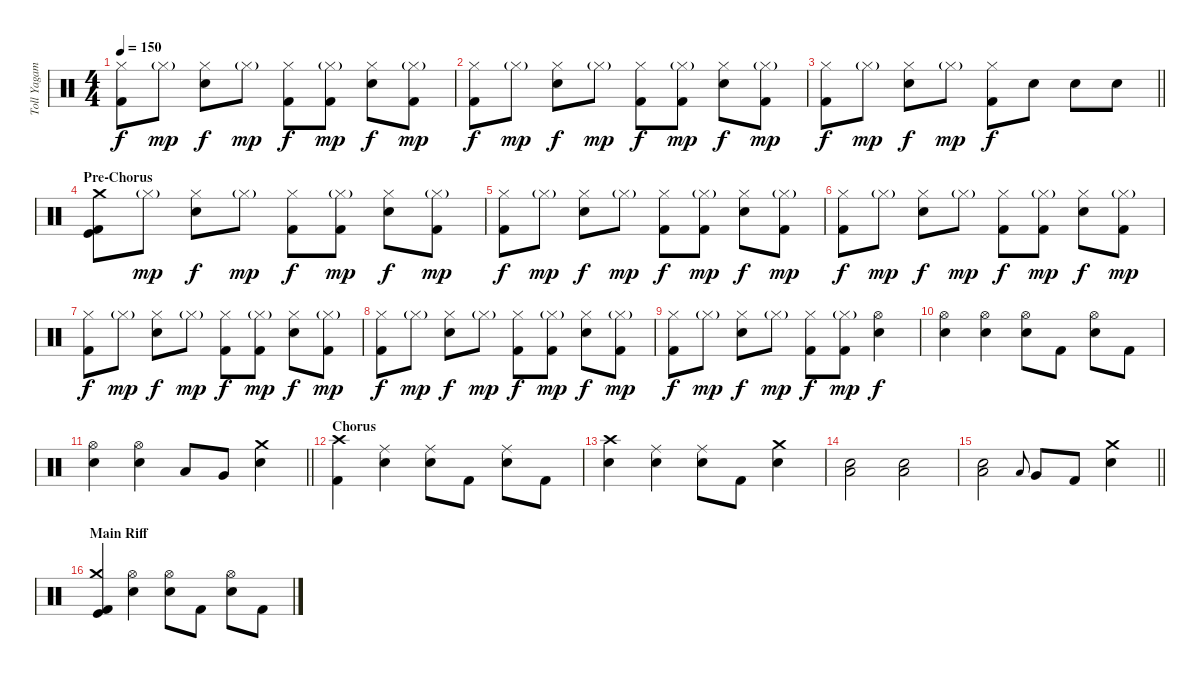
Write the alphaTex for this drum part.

\track ("Toll Yagami" "Toll Yagam") {instrument percussion}
\staff {score}
\articulation defaults
\ts (4 4)
\tempo 150
\clef neutral
\ks c
("Hi-Hat (closed)" "Kick (hit) 2").8{dy f} "Hi-Hat (closed)"{g}.8{dy mp} ("Hi-Hat (closed)" "Electric Snare (hit)").8{dy f} "Hi-Hat (closed)"{g}.8{dy mp} ("Hi-Hat (closed)" "Kick (hit) 2").8{dy f} ("Hi-Hat (closed)"{g} "Kick (hit) 2").8{dy mp} ("Hi-Hat (closed)" "Electric Snare (hit)").8{dy f} ("Hi-Hat (closed)"{g} "Kick (hit) 2").8{dy mp} |
("Hi-Hat (closed)" "Kick (hit) 2").8{dy f} "Hi-Hat (closed)"{g}.8{dy mp} ("Hi-Hat (closed)" "Electric Snare (hit)").8{dy f} "Hi-Hat (closed)"{g}.8{dy mp} ("Hi-Hat (closed)" "Kick (hit) 2").8{dy f} ("Hi-Hat (closed)"{g} "Kick (hit) 2").8{dy mp} ("Hi-Hat (closed)" "Electric Snare (hit)").8{dy f} ("Hi-Hat (closed)"{g} "Kick (hit) 2").8{dy mp} |
\barLineRight lightlight
("Hi-Hat (closed)" "Kick (hit) 2").8{dy f} "Hi-Hat (closed)"{g}.8{dy mp} ("Hi-Hat (closed)" "Electric Snare (hit)").8{dy f} "Hi-Hat (closed)"{g}.8{dy mp} ("Hi-Hat (closed)" "Kick (hit) 2").8{dy f} "Electric Snare (hit)".8 "Electric Snare (hit)".8 "Electric Snare (hit)".8 |
\section ("" "Pre-Chorus")
("Crash medium (hit)" "Kick (hit) 2" "Kick (hit)").8 "Hi-Hat (closed)"{g}.8{dy mp} ("Hi-Hat (closed)" "Electric Snare (hit)").8{dy f} "Hi-Hat (closed)"{g}.8{dy mp} ("Hi-Hat (closed)" "Kick (hit) 2").8{dy f} ("Hi-Hat (closed)"{g} "Kick (hit) 2").8{dy mp} ("Hi-Hat (closed)" "Electric Snare (hit)").8{dy f} ("Hi-Hat (closed)"{g} "Kick (hit) 2").8{dy mp} |
("Hi-Hat (closed)" "Kick (hit) 2").8{dy f} "Hi-Hat (closed)"{g}.8{dy mp} ("Hi-Hat (closed)" "Electric Snare (hit)").8{dy f} "Hi-Hat (closed)"{g}.8{dy mp} ("Hi-Hat (closed)" "Kick (hit) 2").8{dy f} ("Hi-Hat (closed)"{g} "Kick (hit) 2").8{dy mp} ("Hi-Hat (closed)" "Electric Snare (hit)").8{dy f} ("Hi-Hat (closed)"{g} "Kick (hit) 2").8{dy mp} |
("Hi-Hat (closed)" "Kick (hit) 2").8{dy f} "Hi-Hat (closed)"{g}.8{dy mp} ("Hi-Hat (closed)" "Electric Snare (hit)").8{dy f} "Hi-Hat (closed)"{g}.8{dy mp} ("Hi-Hat (closed)" "Kick (hit) 2").8{dy f} ("Hi-Hat (closed)"{g} "Kick (hit) 2").8{dy mp} ("Hi-Hat (closed)" "Electric Snare (hit)").8{dy f} ("Hi-Hat (closed)"{g} "Kick (hit) 2").8{dy mp} |
("Hi-Hat (closed)" "Kick (hit) 2").8{dy f} "Hi-Hat (closed)"{g}.8{dy mp} ("Hi-Hat (closed)" "Electric Snare (hit)").8{dy f} "Hi-Hat (closed)"{g}.8{dy mp} ("Hi-Hat (closed)" "Kick (hit) 2").8{dy f} ("Hi-Hat (closed)"{g} "Kick (hit) 2").8{dy mp} ("Hi-Hat (closed)" "Electric Snare (hit)").8{dy f} ("Hi-Hat (closed)"{g} "Kick (hit) 2").8{dy mp} |
("Hi-Hat (closed)" "Kick (hit) 2").8{dy f} "Hi-Hat (closed)"{g}.8{dy mp} ("Hi-Hat (closed)" "Electric Snare (hit)").8{dy f} "Hi-Hat (closed)"{g}.8{dy mp} ("Hi-Hat (closed)" "Kick (hit) 2").8{dy f} ("Hi-Hat (closed)"{g} "Kick (hit) 2").8{dy mp} ("Hi-Hat (closed)" "Electric Snare (hit)").8{dy f} ("Hi-Hat (closed)"{g} "Kick (hit) 2").8{dy mp} |
("Hi-Hat (closed)" "Kick (hit) 2").8{dy f} "Hi-Hat (closed)"{g}.8{dy mp} ("Hi-Hat (closed)" "Electric Snare (hit)").8{dy f} "Hi-Hat (closed)"{g}.8{dy mp} ("Hi-Hat (closed)" "Kick (hit) 2").8{dy f} ("Hi-Hat (closed)"{g} "Kick (hit) 2").8{dy mp} ("Hi-Hat (open)" "Electric Snare (hit)").4{dy f} |
("Hi-Hat (open)" "Electric Snare (hit)").4 ("Hi-Hat (open)" "Electric Snare (hit)").4 ("Hi-Hat (open)" "Electric Snare (hit)").8 "Kick (hit) 2".8 ("Hi-Hat (open)" "Electric Snare (hit)").8 "Kick (hit) 2".8 |
\barLineRight lightlight
("Hi-Hat (open)" "Electric Snare (hit)").4 ("Hi-Hat (open)" "Electric Snare (hit)").4 "Low Tom (hit)".8 "Very Low Tom (hit)".8 ("Crash medium (hit)" "Electric Snare (hit)").4 |
\section ("" "Chorus")
("Crash high (hit)" "Kick (hit) 2").4 ("Ride (middle)" "Electric Snare (hit)").4 ("Ride (middle)" "Electric Snare (hit)").8 "Kick (hit) 2".8 ("Ride (middle)" "Electric Snare (hit)").8 "Kick (hit) 2".8 |
("Crash high (hit)" "Electric Snare (hit)").4 ("Ride (middle)" "Electric Snare (hit)").4 ("Ride (middle)" "Electric Snare (hit)").8 "Kick (hit) 2".8 ("Crash medium (hit)" "Electric Snare (hit)").4 |
("Low Floor Tom (hit)" "Electric Snare (hit)").2 ("Low Floor Tom (hit)" "Electric Snare (hit)").2 |
\barLineRight lightlight
("Low Floor Tom (hit)" "Electric Snare (hit)").2 "Low Tom (hit)".8{gr onbeat} "Very Low Tom (hit)".8 "Kick (hit) 2".8 ("Crash medium (hit)" "Electric Snare (hit)").4 |
\section ("" "Main Riff")
("Crash medium (hit)" "Kick (hit) 2" "Kick (hit)").4 ("Hi-Hat (open)" "Electric Snare (hit)").4 ("Hi-Hat (open)" "Electric Snare (hit)").8 "Kick (hit) 2".8 ("Hi-Hat (open)" "Electric Snare (hit)").8 "Kick (hit) 2".8
